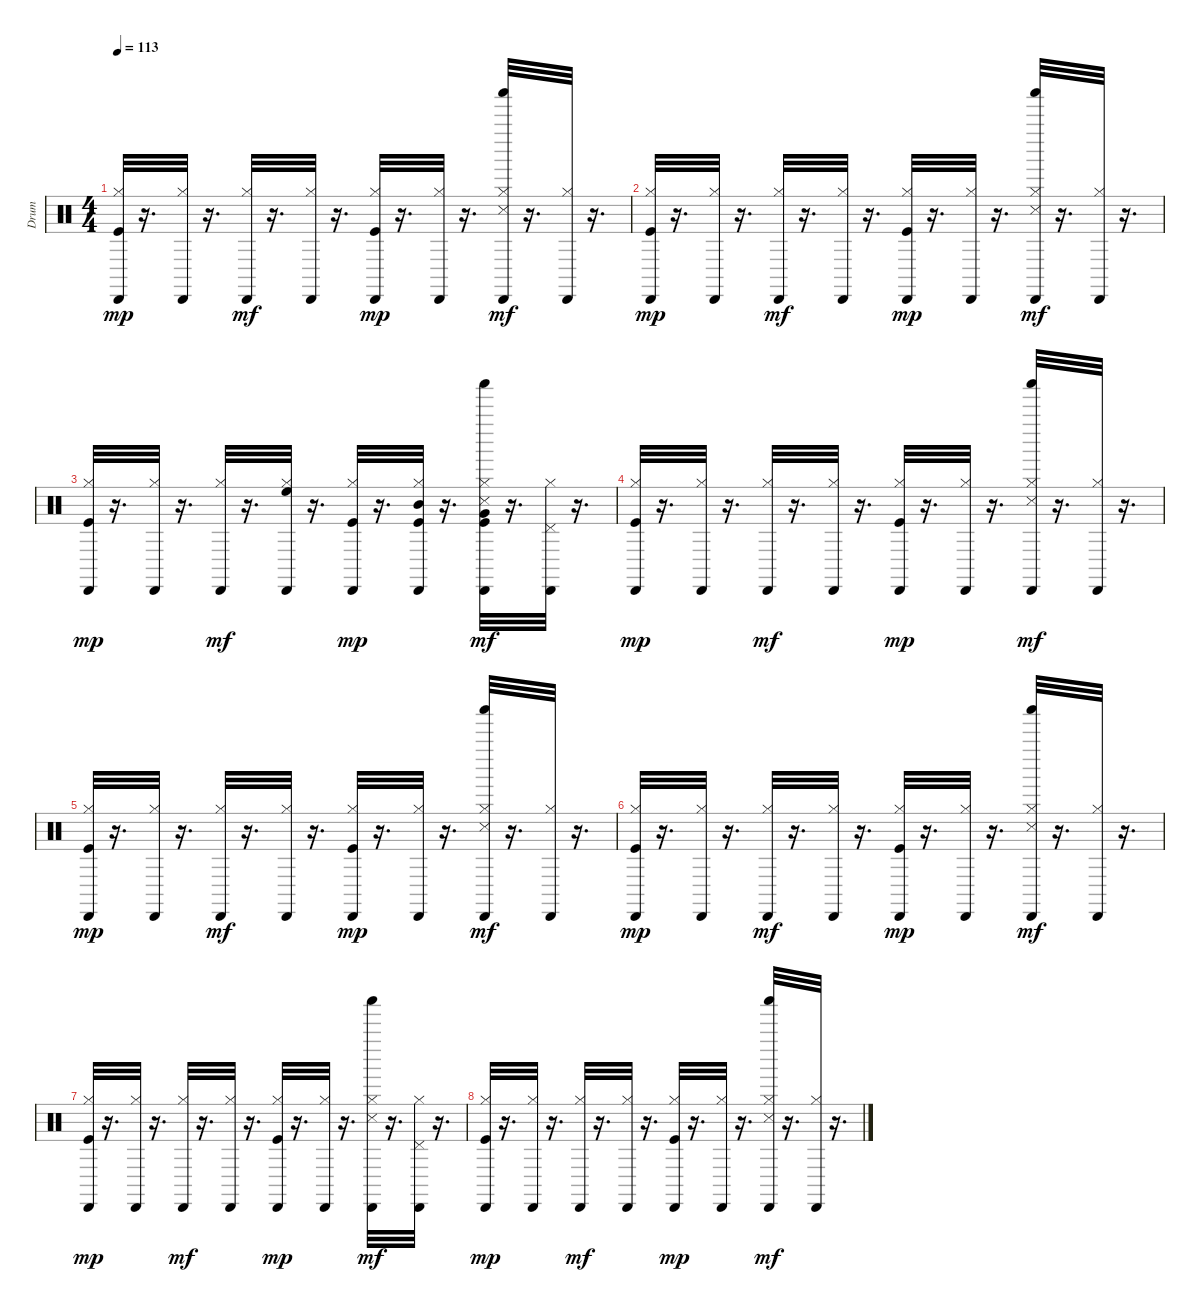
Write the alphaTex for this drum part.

\track ("Drum" "Drum") {instrument percussion}
\staff {score}
\articulation defaults
\ts (4 4)
\tempo 113
\clef neutral
\ks c
("Hi-Hat (closed)" "Kick (hit)" "Cabasa (hit)").32{dy mp} r.16{d} ("Hi-Hat (closed)" "Cabasa (hit)").32 r.16{d} ("Hi-Hat (closed)" "Cabasa (hit)").32{dy mf} r.16{d} ("Hi-Hat (closed)" "Cabasa (hit)").32 r.16{d} ("Hi-Hat (closed)" "Kick (hit)" "Cabasa (hit)").32{dy mp} r.16{d} ("Hi-Hat (closed)" "Cabasa (hit)").32 r.16{d} ("Hi-Hat (closed)" "Shaker (hit)" "Snare (side stick) 3" "Cabasa (hit)").32{dy mf} r.16{d} ("Hi-Hat (closed)" "Cabasa (hit)").32 r.16{d} |
("Hi-Hat (closed)" "Kick (hit)" "Cabasa (hit)").32{dy mp} r.16{d} ("Hi-Hat (closed)" "Cabasa (hit)").32 r.16{d} ("Hi-Hat (closed)" "Cabasa (hit)").32{dy mf} r.16{d} ("Hi-Hat (closed)" "Cabasa (hit)").32 r.16{d} ("Hi-Hat (closed)" "Kick (hit)" "Cabasa (hit)").32{dy mp} r.16{d} ("Hi-Hat (closed)" "Cabasa (hit)").32 r.16{d} ("Hi-Hat (closed)" "Shaker (hit)" "Snare (side stick) 3" "Cabasa (hit)").32{dy mf} r.16{d} ("Hi-Hat (closed)" "Cabasa (hit)").32 r.16{d} |
("Hi-Hat (closed)" "Kick (hit)" "Cabasa (hit)").32{dy mp} r.16{d} ("Hi-Hat (closed)" "Cabasa (hit)").32 r.16{d} ("Hi-Hat (closed)" "Cabasa (hit)").32{dy mf} r.16{d} ("Hi-Hat (closed)" "High Floor Tom (hit)" "Cabasa (hit)").32 r.16{d} ("Hi-Hat (closed)" "Kick (hit)" "Cabasa (hit)").32{dy mp} r.16{d} ("Hi-Hat (closed)" "Mid Tom (hit)" "Kick (hit)" "Cabasa (hit)").32 r.16{d} ("Hi-Hat (closed)" "Very Low Tom (hit)" "Shaker (hit)" "Snare (side stick) 3" "Kick (hit)" "Cabasa (hit)").32{dy mf} r.16{d} ("Hi-Hat (closed)" "Pedal Hi-Hat (hit)" "Cabasa (hit)").32 r.16{d} |
("Hi-Hat (closed)" "Kick (hit)" "Cabasa (hit)").32{dy mp} r.16{d} ("Hi-Hat (closed)" "Cabasa (hit)").32 r.16{d} ("Hi-Hat (closed)" "Cabasa (hit)").32{dy mf} r.16{d} ("Hi-Hat (closed)" "Cabasa (hit)").32 r.16{d} ("Hi-Hat (closed)" "Kick (hit)" "Cabasa (hit)").32{dy mp} r.16{d} ("Hi-Hat (closed)" "Cabasa (hit)").32 r.16{d} ("Hi-Hat (closed)" "Shaker (hit)" "Snare (side stick) 3" "Cabasa (hit)").32{dy mf} r.16{d} ("Hi-Hat (closed)" "Cabasa (hit)").32 r.16{d} |
("Hi-Hat (closed)" "Kick (hit)" "Cabasa (hit)").32{dy mp} r.16{d} ("Hi-Hat (closed)" "Cabasa (hit)").32 r.16{d} ("Hi-Hat (closed)" "Cabasa (hit)").32{dy mf} r.16{d} ("Hi-Hat (closed)" "Cabasa (hit)").32 r.16{d} ("Hi-Hat (closed)" "Kick (hit)" "Cabasa (hit)").32{dy mp} r.16{d} ("Hi-Hat (closed)" "Cabasa (hit)").32 r.16{d} ("Hi-Hat (closed)" "Shaker (hit)" "Snare (side stick) 3" "Cabasa (hit)").32{dy mf} r.16{d} ("Hi-Hat (closed)" "Cabasa (hit)").32 r.16{d} |
("Hi-Hat (closed)" "Kick (hit)" "Cabasa (hit)").32{dy mp} r.16{d} ("Hi-Hat (closed)" "Cabasa (hit)").32 r.16{d} ("Hi-Hat (closed)" "Cabasa (hit)").32{dy mf} r.16{d} ("Hi-Hat (closed)" "Cabasa (hit)").32 r.16{d} ("Hi-Hat (closed)" "Kick (hit)" "Cabasa (hit)").32{dy mp} r.16{d} ("Hi-Hat (closed)" "Cabasa (hit)").32 r.16{d} ("Hi-Hat (closed)" "Shaker (hit)" "Snare (side stick) 3" "Cabasa (hit)").32{dy mf} r.16{d} ("Hi-Hat (closed)" "Cabasa (hit)").32 r.16{d} |
("Hi-Hat (closed)" "Kick (hit)" "Cabasa (hit)").32{dy mp} r.16{d} ("Hi-Hat (closed)" "Cabasa (hit)").32 r.16{d} ("Hi-Hat (closed)" "Cabasa (hit)").32{dy mf} r.16{d} ("Hi-Hat (closed)" "Cabasa (hit)").32 r.16{d} ("Hi-Hat (closed)" "Kick (hit)" "Cabasa (hit)").32{dy mp} r.16{d} ("Hi-Hat (closed)" "Cabasa (hit)").32 r.16{d} ("Hi-Hat (closed)" "Shaker (hit)" "Snare (side stick) 3" "Cabasa (hit)").32{dy mf} r.16{d} ("Hi-Hat (closed)" "Pedal Hi-Hat (hit)" "Cabasa (hit)").32 r.16{d} |
("Hi-Hat (closed)" "Kick (hit)" "Cabasa (hit)").32{dy mp} r.16{d} ("Hi-Hat (closed)" "Cabasa (hit)").32 r.16{d} ("Hi-Hat (closed)" "Cabasa (hit)").32{dy mf} r.16{d} ("Hi-Hat (closed)" "Cabasa (hit)").32 r.16{d} ("Hi-Hat (closed)" "Kick (hit)" "Cabasa (hit)").32{dy mp} r.16{d} ("Hi-Hat (closed)" "Cabasa (hit)").32 r.16{d} ("Hi-Hat (closed)" "Shaker (hit)" "Snare (side stick) 3" "Cabasa (hit)").32{dy mf} r.16{d} ("Hi-Hat (closed)" "Cabasa (hit)").32 r.16{d}
